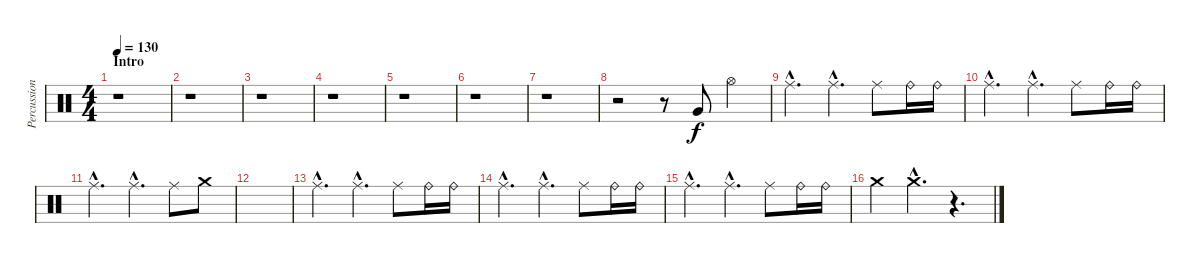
\track ("Percussion" "Percussion") {instrument percussion}
\staff {score}
\articulation defaults
\ts (4 4)
\section ("" "Intro")
\tempo 130
\tempo 125
\tempo 130
\clef neutral
\ks c
r.1{dy f} |
r.1 |
r.1 |
r.1 |
r.1 |
r.1 |
r.1 |
r.2 r.8 "Very Low Tom (hit)".8 "Hi-Hat (open)".4 |
"Ride (middle)"{hac}.4{d} "Ride (middle)"{hac}.4{d} "Ride (middle)".8 "Ride (bell)".16 "Ride (bell)".16 |
"Ride (middle)"{hac}.4{d} "Ride (middle)"{hac}.4{d} "Ride (middle)".8 "Ride (bell)".16 "Ride (bell)".16 |
"Ride (middle)"{hac}.4{d} "Ride (middle)"{hac}.4{d} "Ride (middle)".8 "Crash medium (hit)".8 |
|
"Ride (middle)"{hac}.4{d} "Ride (middle)"{hac}.4{d} "Ride (middle)".8 "Ride (bell)".16 "Ride (bell)".16 |
"Ride (middle)"{hac}.4{d} "Ride (middle)"{hac}.4{d} "Ride (middle)".8 "Ride (bell)".16 "Ride (bell)".16 |
"Ride (middle)"{hac}.4{d} "Ride (middle)"{hac}.4{d} "Ride (middle)".8 "Ride (bell)".16 "Ride (bell)".16 |
"Crash medium (hit)".4 "Crash medium (hit)"{hac}.4{d} r.4{d}
